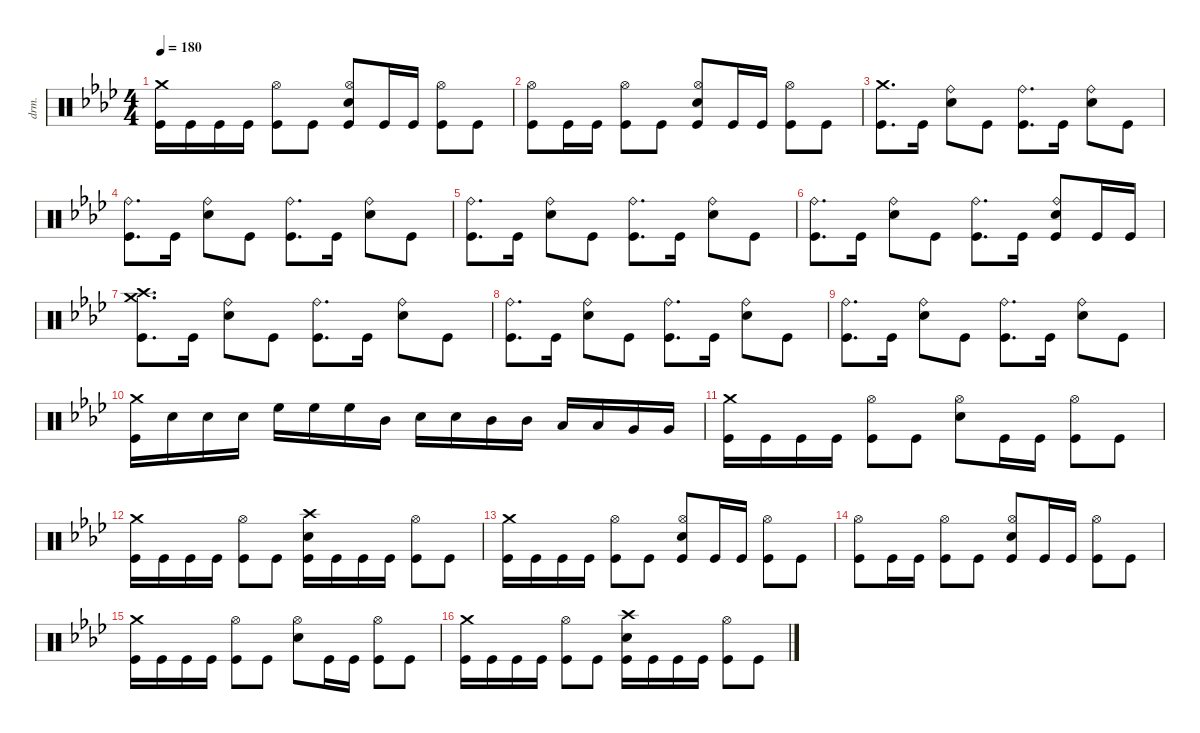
\defaultSystemsLayout 4
\hideDynamics
\bracketExtendMode nobrackets
\otherSystemsTrackNameOrientation horizontal
\track ("Percussion" "drm.") {instrument percussion}
\staff {score}
\articulation defaults
\ts (4 4)
\tempo 180
\clef neutral
\ks fminor
("Crash medium (hit)"{acc forcenatural} "Kick (hit)"{acc forcenatural}).16{dy f beam Down} "Kick (hit)"{acc forcenatural}.16{beam Down} "Kick (hit)"{acc forcenatural}.16{beam Down} "Kick (hit)"{acc forcenatural}.16{beam Down} ("Hi-Hat (open)"{acc forcenatural} "Kick (hit)"{acc forcenatural}).8{beam Down} "Kick (hit)"{acc forcenatural}.8{beam Down} ("Hi-Hat (open)"{acc forcenatural} "Snare (hit) 2"{acc forcenatural} "Kick (hit)"{acc forcenatural}).8{beam Up} "Kick (hit)"{acc forcenatural}.16{beam Up} "Kick (hit)"{acc forcenatural}.16{beam Up} ("Hi-Hat (open)"{acc forcenatural} "Kick (hit)"{acc forcenatural}).8{beam Down} "Kick (hit)"{acc forcenatural}.8{beam Down} |
("Hi-Hat (open)"{acc forcenatural} "Kick (hit)"{acc forcenatural}).8{beam Down} "Kick (hit)"{acc forcenatural}.16{beam Down} "Kick (hit)"{acc forcenatural}.16{beam Down} ("Hi-Hat (open)"{acc forcenatural} "Kick (hit)"{acc forcenatural}).8{beam Down} "Kick (hit)"{acc forcenatural}.8{beam Down} ("Hi-Hat (open)"{acc forcenatural} "Snare (hit) 2"{acc forcenatural} "Kick (hit)"{acc forcenatural}).8{beam Up} "Kick (hit)"{acc forcenatural}.16{beam Up} "Kick (hit)"{acc forcenatural}.16{beam Up} ("Hi-Hat (open)"{acc forcenatural} "Kick (hit)"{acc forcenatural}).8{beam Down} "Kick (hit)"{acc forcenatural}.8{beam Down} |
("Crash medium (hit)"{acc forcenatural} "Kick (hit)"{acc forcenatural}).8{d beam Down} "Kick (hit)"{acc forcenatural}.16{beam Down} ("Ride (bell)"{acc forcenatural} "Snare (hit) 2"{acc forcenatural}).8{beam Down} "Kick (hit)"{acc forcenatural}.8{beam Down} ("Ride (bell)"{acc forcenatural} "Kick (hit)"{acc forcenatural}).8{d beam Down} "Kick (hit)"{acc forcenatural}.16{beam Down} ("Ride (bell)"{acc forcenatural} "Snare (hit) 2"{acc forcenatural}).8{beam Down} "Kick (hit)"{acc forcenatural}.8{beam Down} |
("Ride (bell)"{acc forcenatural} "Kick (hit)"{acc forcenatural}).8{d beam Down} "Kick (hit)"{acc forcenatural}.16{beam Down} ("Ride (bell)"{acc forcenatural} "Snare (hit) 2"{acc forcenatural}).8{beam Down} "Kick (hit)"{acc forcenatural}.8{beam Down} ("Ride (bell)"{acc forcenatural} "Kick (hit)"{acc forcenatural}).8{d beam Down} "Kick (hit)"{acc forcenatural}.16{beam Down} ("Ride (bell)"{acc forcenatural} "Snare (hit) 2"{acc forcenatural}).8{beam Down} "Kick (hit)"{acc forcenatural}.8{beam Down} |
("Ride (bell)"{acc forcenatural} "Kick (hit)"{acc forcenatural}).8{d beam Down} "Kick (hit)"{acc forcenatural}.16{beam Down} ("Ride (bell)"{acc forcenatural} "Snare (hit) 2"{acc forcenatural}).8{beam Down} "Kick (hit)"{acc forcenatural}.8{beam Down} ("Ride (bell)"{acc forcenatural} "Kick (hit)"{acc forcenatural}).8{d beam Down} "Kick (hit)"{acc forcenatural}.16{beam Down} ("Ride (bell)"{acc forcenatural} "Snare (hit) 2"{acc forcenatural}).8{beam Down} "Kick (hit)"{acc forcenatural}.8{beam Down} |
("Ride (bell)"{acc forcenatural} "Kick (hit)"{acc forcenatural}).8{d beam Down} "Kick (hit)"{acc forcenatural}.16{beam Down} ("Ride (bell)"{acc forcenatural} "Snare (hit) 2"{acc forcenatural}).8{beam Down} "Kick (hit)"{acc forcenatural}.8{beam Down} ("Ride (bell)"{acc forcenatural} "Kick (hit)"{acc forcenatural}).8{d beam Down} "Kick (hit)"{acc forcenatural}.16{beam Down} ("Ride (bell)"{acc forcenatural} "Snare (hit) 2"{acc forcenatural} "Kick (hit)"{acc forcenatural}).8{beam Up} "Kick (hit)"{acc forcenatural}.16{beam Up} "Kick (hit)"{acc forcenatural}.16{beam Up} |
("Crash high (hit)"{acc forcenatural} "Crash medium (hit)"{acc forcenatural} "Kick (hit)"{acc forcenatural}).8{d beam Down} "Kick (hit)"{acc forcenatural}.16{beam Down} ("Ride (bell)"{acc forcenatural} "Snare (hit) 2"{acc forcenatural}).8{beam Down} "Kick (hit)"{acc forcenatural}.8{beam Down} ("Ride (bell)"{acc forcenatural} "Kick (hit)"{acc forcenatural}).8{d beam Down} "Kick (hit)"{acc forcenatural}.16{beam Down} ("Ride (bell)"{acc forcenatural} "Snare (hit) 2"{acc forcenatural}).8{beam Down} "Kick (hit)"{acc forcenatural}.8{beam Down} |
("Ride (bell)"{acc forcenatural} "Kick (hit)"{acc forcenatural}).8{d beam Down} "Kick (hit)"{acc forcenatural}.16{beam Down} ("Ride (bell)"{acc forcenatural} "Snare (hit) 2"{acc forcenatural}).8{beam Down} "Kick (hit)"{acc forcenatural}.8{beam Down} ("Ride (bell)"{acc forcenatural} "Kick (hit)"{acc forcenatural}).8{d beam Down} "Kick (hit)"{acc forcenatural}.16{beam Down} ("Ride (bell)"{acc forcenatural} "Snare (hit) 2"{acc forcenatural}).8{beam Down} "Kick (hit)"{acc forcenatural}.8{beam Down} |
("Ride (bell)"{acc forcenatural} "Kick (hit)"{acc forcenatural}).8{d beam Down} "Kick (hit)"{acc forcenatural}.16{beam Down} ("Ride (bell)"{acc forcenatural} "Snare (hit) 2"{acc forcenatural}).8{beam Down} "Kick (hit)"{acc forcenatural}.8{beam Down} ("Ride (bell)"{acc forcenatural} "Kick (hit)"{acc forcenatural}).8{d beam Down} "Kick (hit)"{acc forcenatural}.16{beam Down} ("Ride (bell)"{acc forcenatural} "Snare (hit) 2"{acc forcenatural}).8{beam Down} "Kick (hit)"{acc forcenatural}.8{beam Down} |
("Crash medium (hit)"{acc forcenatural} "Kick (hit)"{acc forcenatural}).16{beam Down} "Snare (hit) 2"{acc forcenatural}.16{beam Down} "Snare (hit) 2"{acc forcenatural}.16{beam Down} "Snare (hit) 2"{acc forcenatural}.16{beam Down} "High Floor Tom (hit)"{acc forcenatural}.16{beam Down} "High Floor Tom (hit)"{acc forcenatural}.16{beam Down} "High Floor Tom (hit)"{acc forcenatural}.16{beam Down} "Mid Tom (hit)"{acc forcenatural}.16{beam Down} "Snare (hit) 2"{acc forcenatural}.16{beam Down} "Snare (hit) 2"{acc forcenatural}.16{beam Down} "Mid Tom (hit)"{acc forcenatural}.16{beam Down} "Mid Tom (hit)"{acc forcenatural}.16{beam Down} "Low Tom (hit)"{acc forcenatural}.16{beam Up} "Low Tom (hit)"{acc forcenatural}.16{beam Up} "Very Low Tom (hit)"{acc forcenatural}.16{beam Up} "Very Low Tom (hit)"{acc forcenatural}.16{beam Up} |
("Crash medium (hit)"{acc forcenatural} "Kick (hit)"{acc forcenatural}).16{beam Down} "Kick (hit)"{acc forcenatural}.16{beam Down} "Kick (hit)"{acc forcenatural}.16{beam Down} "Kick (hit)"{acc forcenatural}.16{beam Down} ("Hi-Hat (open)"{acc forcenatural} "Kick (hit)"{acc forcenatural}).8{beam Down} "Kick (hit)"{acc forcenatural}.8{beam Down} ("Hi-Hat (open)"{acc forcenatural} "Snare (hit) 2"{acc forcenatural}).8{beam Down} "Kick (hit)"{acc forcenatural}.16{beam Down} "Kick (hit)"{acc forcenatural}.16{beam Down} ("Hi-Hat (open)"{acc forcenatural} "Kick (hit)"{acc forcenatural}).8{beam Down} "Kick (hit)"{acc forcenatural}.8{beam Down} |
("Crash medium (hit)"{acc forcenatural} "Kick (hit)"{acc forcenatural}).16{beam Down} "Kick (hit)"{acc forcenatural}.16{beam Down} "Kick (hit)"{acc forcenatural}.16{beam Down} "Kick (hit)"{acc forcenatural}.16{beam Down} ("Hi-Hat (open)"{acc forcenatural} "Kick (hit)"{acc forcenatural}).8{beam Down} "Kick (hit)"{acc forcenatural}.8{beam Down} ("Crash high (hit)"{acc forcenatural} "Snare (hit) 2"{acc forcenatural} "Kick (hit)"{acc forcenatural}).16{beam Down} "Kick (hit)"{acc forcenatural}.16{beam Down} "Kick (hit)"{acc forcenatural}.16{beam Down} "Kick (hit)"{acc forcenatural}.16{beam Down} ("Hi-Hat (open)"{acc forcenatural} "Kick (hit)"{acc forcenatural}).8{beam Down} "Kick (hit)"{acc forcenatural}.8{beam Down} |
("Crash medium (hit)"{acc forcenatural} "Kick (hit)"{acc forcenatural}).16{beam Down} "Kick (hit)"{acc forcenatural}.16{beam Down} "Kick (hit)"{acc forcenatural}.16{beam Down} "Kick (hit)"{acc forcenatural}.16{beam Down} ("Hi-Hat (open)"{acc forcenatural} "Kick (hit)"{acc forcenatural}).8{beam Down} "Kick (hit)"{acc forcenatural}.8{beam Down} ("Hi-Hat (open)"{acc forcenatural} "Snare (hit) 2"{acc forcenatural} "Kick (hit)"{acc forcenatural}).8{beam Up} "Kick (hit)"{acc forcenatural}.16{beam Up} "Kick (hit)"{acc forcenatural}.16{beam Up} ("Hi-Hat (open)"{acc forcenatural} "Kick (hit)"{acc forcenatural}).8{beam Down} "Kick (hit)"{acc forcenatural}.8{beam Down} |
("Hi-Hat (open)"{acc forcenatural} "Kick (hit)"{acc forcenatural}).8{beam Down} "Kick (hit)"{acc forcenatural}.16{beam Down} "Kick (hit)"{acc forcenatural}.16{beam Down} ("Hi-Hat (open)"{acc forcenatural} "Kick (hit)"{acc forcenatural}).8{beam Down} "Kick (hit)"{acc forcenatural}.8{beam Down} ("Hi-Hat (open)"{acc forcenatural} "Snare (hit) 2"{acc forcenatural} "Kick (hit)"{acc forcenatural}).8{beam Up} "Kick (hit)"{acc forcenatural}.16{beam Up} "Kick (hit)"{acc forcenatural}.16{beam Up} ("Hi-Hat (open)"{acc forcenatural} "Kick (hit)"{acc forcenatural}).8{beam Down} "Kick (hit)"{acc forcenatural}.8{beam Down} |
("Crash medium (hit)"{acc forcenatural} "Kick (hit)"{acc forcenatural}).16{beam Down} "Kick (hit)"{acc forcenatural}.16{beam Down} "Kick (hit)"{acc forcenatural}.16{beam Down} "Kick (hit)"{acc forcenatural}.16{beam Down} ("Hi-Hat (open)"{acc forcenatural} "Kick (hit)"{acc forcenatural}).8{beam Down} "Kick (hit)"{acc forcenatural}.8{beam Down} ("Hi-Hat (open)"{acc forcenatural} "Snare (hit) 2"{acc forcenatural}).8{beam Down} "Kick (hit)"{acc forcenatural}.16{beam Down} "Kick (hit)"{acc forcenatural}.16{beam Down} ("Hi-Hat (open)"{acc forcenatural} "Kick (hit)"{acc forcenatural}).8{beam Down} "Kick (hit)"{acc forcenatural}.8{beam Down} |
("Crash medium (hit)"{acc forcenatural} "Kick (hit)"{acc forcenatural}).16{beam Down} "Kick (hit)"{acc forcenatural}.16{beam Down} "Kick (hit)"{acc forcenatural}.16{beam Down} "Kick (hit)"{acc forcenatural}.16{beam Down} ("Hi-Hat (open)"{acc forcenatural} "Kick (hit)"{acc forcenatural}).8{beam Down} "Kick (hit)"{acc forcenatural}.8{beam Down} ("Crash high (hit)"{acc forcenatural} "Snare (hit) 2"{acc forcenatural} "Kick (hit)"{acc forcenatural}).16{beam Down} "Kick (hit)"{acc forcenatural}.16{beam Down} "Kick (hit)"{acc forcenatural}.16{beam Down} "Kick (hit)"{acc forcenatural}.16{beam Down} ("Hi-Hat (open)"{acc forcenatural} "Kick (hit)"{acc forcenatural}).8{beam Down} "Kick (hit)"{acc forcenatural}.8{beam Down}
